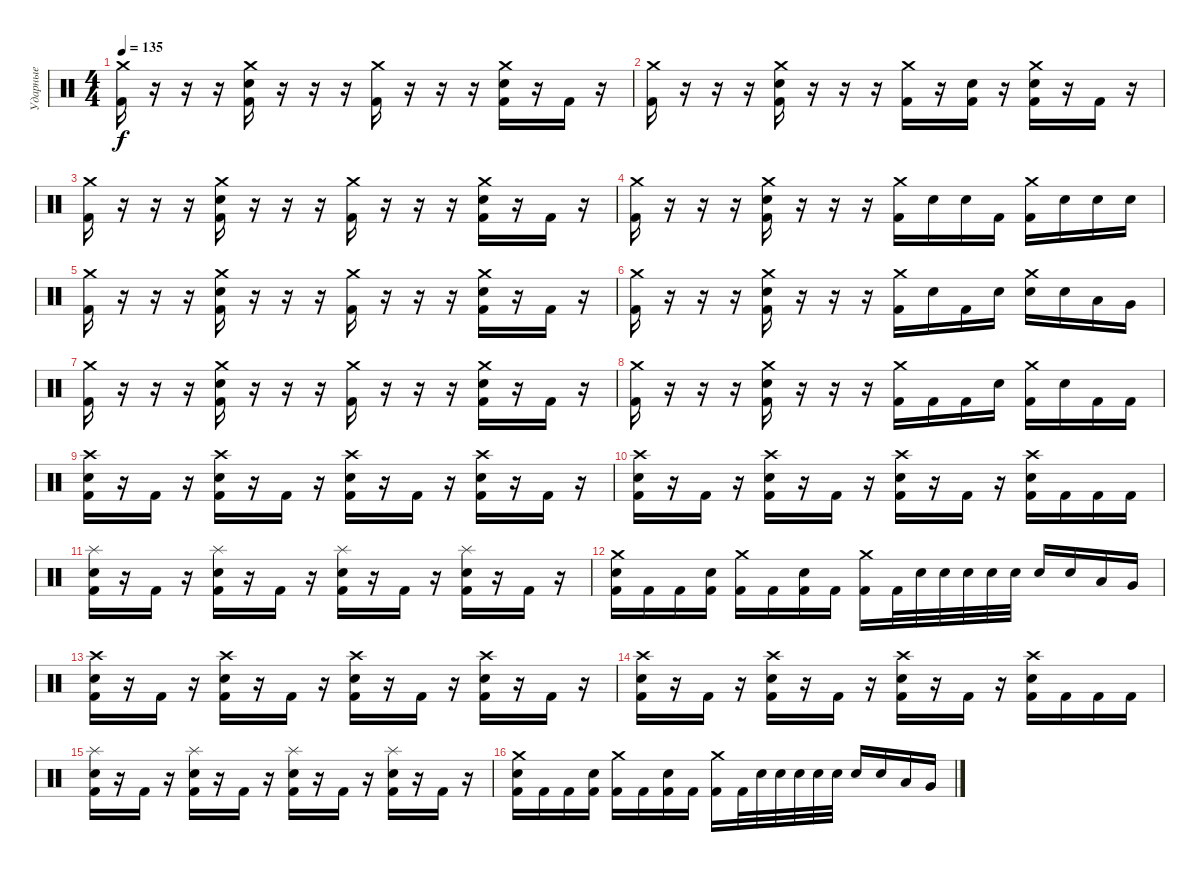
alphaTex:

\track ("Ударные" "Ударные") {instrument percussion}
\staff {score}
\articulation defaults
\ts (4 4)
\tempo 135
\clef neutral
\ks c
("Crash medium (hit)" "Kick (hit) 2").16{dy f} r.16 r.16 r.16 ("Crash medium (hit)" "Electric Snare (hit)" "Kick (hit) 2").16 r.16 r.16 r.16 ("Crash medium (hit)" "Kick (hit) 2").16 r.16 r.16 r.16 ("Crash medium (hit)" "Electric Snare (hit)" "Kick (hit) 2").16 r.16 "Kick (hit) 2".16 r.16 |
("Crash medium (hit)" "Kick (hit) 2").16 r.16 r.16 r.16 ("Crash medium (hit)" "Electric Snare (hit)" "Kick (hit) 2").16 r.16 r.16 r.16 ("Crash medium (hit)" "Kick (hit) 2").16 r.16 ("Electric Snare (hit)" "Kick (hit) 2").16 r.16 ("Crash medium (hit)" "Electric Snare (hit)" "Kick (hit) 2").16 r.16 "Kick (hit) 2".16 r.16 |
("Crash medium (hit)" "Kick (hit) 2").16 r.16 r.16 r.16 ("Crash medium (hit)" "Electric Snare (hit)" "Kick (hit) 2").16 r.16 r.16 r.16 ("Crash medium (hit)" "Kick (hit) 2").16 r.16 r.16 r.16 ("Crash medium (hit)" "Electric Snare (hit)" "Kick (hit) 2").16 r.16 "Kick (hit) 2".16 r.16 |
("Crash medium (hit)" "Kick (hit) 2").16 r.16 r.16 r.16 ("Crash medium (hit)" "Electric Snare (hit)" "Kick (hit) 2").16 r.16 r.16 r.16 ("Crash medium (hit)" "Kick (hit) 2").16 "Electric Snare (hit)".16 "Electric Snare (hit)".16 "Kick (hit) 2".16 ("Crash medium (hit)" "Kick (hit) 2").16 "Electric Snare (hit)".16 "Electric Snare (hit)".16 "Electric Snare (hit)".16 |
("Crash medium (hit)" "Kick (hit) 2").16 r.16 r.16 r.16 ("Crash medium (hit)" "Electric Snare (hit)" "Kick (hit) 2").16 r.16 r.16 r.16 ("Crash medium (hit)" "Kick (hit) 2").16 r.16 r.16 r.16 ("Crash medium (hit)" "Electric Snare (hit)" "Kick (hit) 2").16 r.16 "Kick (hit) 2".16 r.16 |
("Crash medium (hit)" "Kick (hit) 2").16 r.16 r.16 r.16 ("Crash medium (hit)" "Electric Snare (hit)" "Kick (hit) 2").16 r.16 r.16 r.16 ("Crash medium (hit)" "Kick (hit) 2").16 "Electric Snare (hit)".16 "Kick (hit) 2".16 "Electric Snare (hit)".16 ("Crash medium (hit)" "Electric Snare (hit)").16 "Electric Snare (hit)".16 "Low Tom (hit)".16 "Very Low Tom (hit)".16 |
("Crash medium (hit)" "Kick (hit) 2").16 r.16 r.16 r.16 ("Crash medium (hit)" "Electric Snare (hit)" "Kick (hit) 2").16 r.16 r.16 r.16 ("Crash medium (hit)" "Kick (hit) 2").16 r.16 r.16 r.16 ("Crash medium (hit)" "Electric Snare (hit)" "Kick (hit) 2").16 r.16 "Kick (hit) 2".16 r.16 |
("Crash medium (hit)" "Kick (hit) 2").16 r.16 r.16 r.16 ("Crash medium (hit)" "Electric Snare (hit)" "Kick (hit) 2").16 r.16 r.16 r.16 ("Crash medium (hit)" "Kick (hit) 2").16 "Kick (hit) 2".16 "Kick (hit) 2".16 "Electric Snare (hit)".16 ("Crash medium (hit)" "Kick (hit) 2").16 "Electric Snare (hit)".16 "Kick (hit) 2".16 "Kick (hit) 2".16 |
("Crash high (hit)" "Electric Snare (hit)" "Kick (hit) 2").16 r.16 "Kick (hit) 2".16 r.16 ("Crash high (hit)" "Electric Snare (hit)" "Kick (hit) 2").16 r.16 "Kick (hit) 2".16 r.16 ("Crash high (hit)" "Electric Snare (hit)" "Kick (hit) 2").16 r.16 "Kick (hit) 2".16 r.16 ("Crash high (hit)" "Electric Snare (hit)" "Kick (hit) 2").16 r.16 "Kick (hit) 2".16 r.16 |
("Crash high (hit)" "Electric Snare (hit)" "Kick (hit) 2").16 r.16 "Kick (hit) 2".16 r.16 ("Crash high (hit)" "Electric Snare (hit)" "Kick (hit) 2").16 r.16 "Kick (hit) 2".16 r.16 ("Crash high (hit)" "Electric Snare (hit)" "Kick (hit) 2").16 r.16 "Kick (hit) 2".16 r.16 ("Crash high (hit)" "Electric Snare (hit)" "Kick (hit) 2").16 "Kick (hit) 2".16 "Kick (hit) 2".16 "Kick (hit) 2".16 |
("Splash (hit)" "Electric Snare (hit)" "Kick (hit) 2").16 r.16 "Kick (hit) 2".16 r.16 ("Splash (hit)" "Electric Snare (hit)" "Kick (hit) 2").16 r.16 "Kick (hit) 2".16 r.16 ("Splash (hit)" "Electric Snare (hit)" "Kick (hit) 2").16 r.16 "Kick (hit) 2".16 r.16 ("Splash (hit)" "Electric Snare (hit)" "Kick (hit) 2").16 r.16 "Kick (hit) 2".16 r.16 |
("Crash medium (hit)" "Electric Snare (hit)" "Kick (hit) 2").16 "Kick (hit) 2".16 "Kick (hit) 2".16 ("Electric Snare (hit)" "Kick (hit) 2").16 ("Crash medium (hit)" "Kick (hit) 2").16 "Kick (hit) 2".16 ("Electric Snare (hit)" "Kick (hit) 2").16 "Kick (hit) 2".16 ("Crash medium (hit)" "Kick (hit) 2").16 "Kick (hit) 2".32 "Electric Snare (hit)".32 "Electric Snare (hit)".32 "Electric Snare (hit)".32 "Electric Snare (hit)".32 "Electric Snare (hit)".32 "Electric Snare (hit)".16 "Electric Snare (hit)".16 "Low Tom (hit)".16 "Very Low Tom (hit)".16 |
("Crash high (hit)" "Electric Snare (hit)" "Kick (hit) 2").16 r.16 "Kick (hit) 2".16 r.16 ("Crash high (hit)" "Electric Snare (hit)" "Kick (hit) 2").16 r.16 "Kick (hit) 2".16 r.16 ("Crash high (hit)" "Electric Snare (hit)" "Kick (hit) 2").16 r.16 "Kick (hit) 2".16 r.16 ("Crash high (hit)" "Electric Snare (hit)" "Kick (hit) 2").16 r.16 "Kick (hit) 2".16 r.16 |
("Crash high (hit)" "Electric Snare (hit)" "Kick (hit) 2").16 r.16 "Kick (hit) 2".16 r.16 ("Crash high (hit)" "Electric Snare (hit)" "Kick (hit) 2").16 r.16 "Kick (hit) 2".16 r.16 ("Crash high (hit)" "Electric Snare (hit)" "Kick (hit) 2").16 r.16 "Kick (hit) 2".16 r.16 ("Crash high (hit)" "Electric Snare (hit)" "Kick (hit) 2").16 "Kick (hit) 2".16 "Kick (hit) 2".16 "Kick (hit) 2".16 |
("Splash (hit)" "Electric Snare (hit)" "Kick (hit) 2").16 r.16 "Kick (hit) 2".16 r.16 ("Splash (hit)" "Electric Snare (hit)" "Kick (hit) 2").16 r.16 "Kick (hit) 2".16 r.16 ("Splash (hit)" "Electric Snare (hit)" "Kick (hit) 2").16 r.16 "Kick (hit) 2".16 r.16 ("Splash (hit)" "Electric Snare (hit)" "Kick (hit) 2").16 r.16 "Kick (hit) 2".16 r.16 |
("Crash medium (hit)" "Electric Snare (hit)" "Kick (hit) 2").16 "Kick (hit) 2".16 "Kick (hit) 2".16 ("Electric Snare (hit)" "Kick (hit) 2").16 ("Crash medium (hit)" "Kick (hit) 2").16 "Kick (hit) 2".16 ("Electric Snare (hit)" "Kick (hit) 2").16 "Kick (hit) 2".16 ("Crash medium (hit)" "Kick (hit) 2").16 "Kick (hit) 2".32 "Electric Snare (hit)".32 "Electric Snare (hit)".32 "Electric Snare (hit)".32 "Electric Snare (hit)".32 "Electric Snare (hit)".32 "Electric Snare (hit)".16 "Electric Snare (hit)".16 "Low Tom (hit)".16 "Very Low Tom (hit)".16
